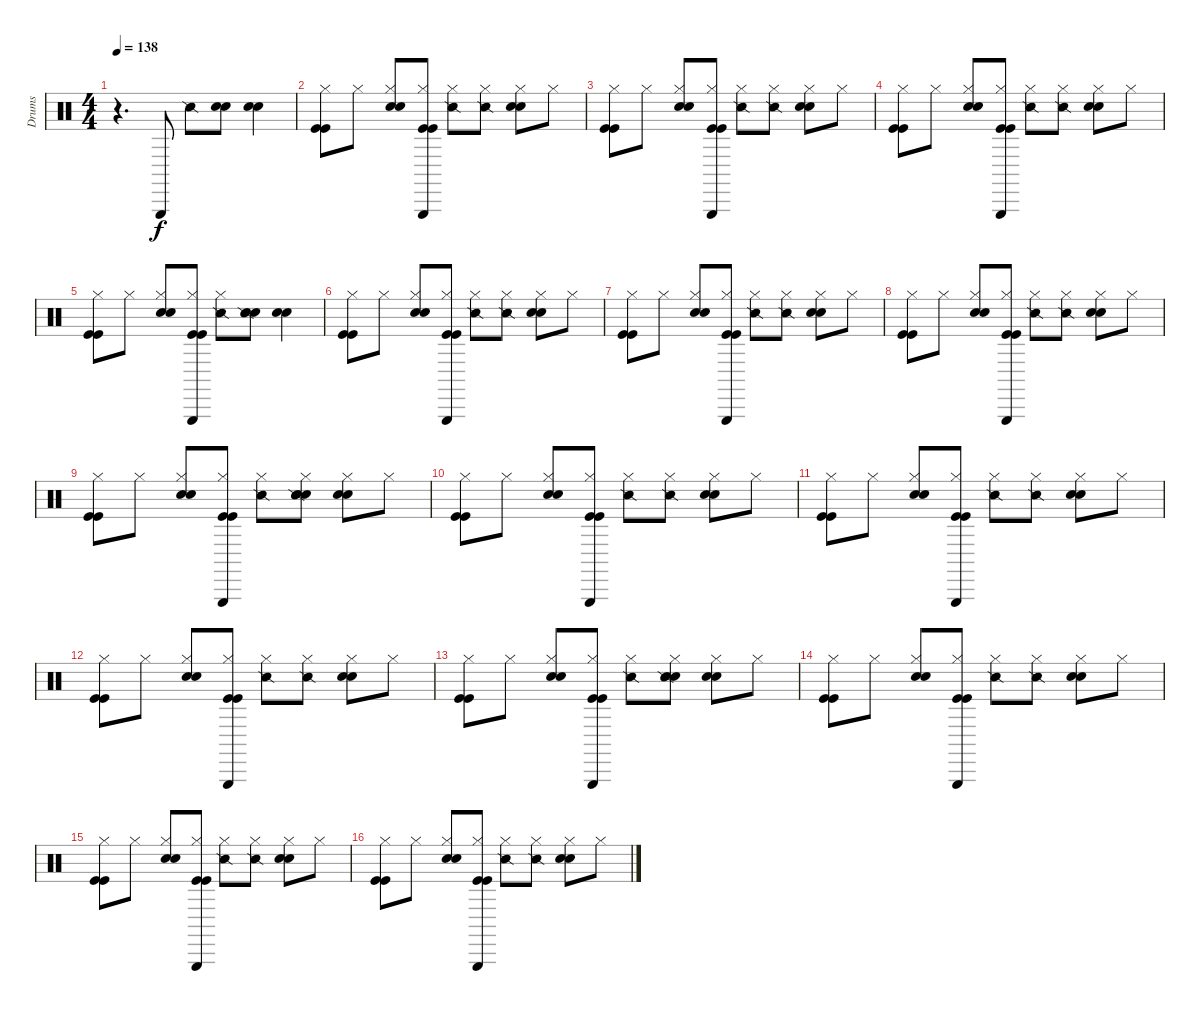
\track ("Drums" "Drums") {instrument percussion}
\staff {score}
\articulation defaults
\ts (4 4)
\tempo 138
\clef neutral
\ks c
r.4{d dy f} "Triangle (hit)".8 "Snare (side stick) 2".8 ("Snare (hit) 2" "Snare (hit) 2").8 ("Snare (hit) 2" "Snare (hit) 2").4 |
("Hi-Hat (closed)" "Kick (hit)" "Kick (hit)").8 "Hi-Hat (closed)".8 ("Hi-Hat (closed)" "Snare (hit) 2" "Snare (hit) 2").8 ("Hi-Hat (closed)" "Triangle (hit)" "Kick (hit)" "Kick (hit)").8 ("Hi-Hat (closed)" "Snare (side stick) 2").8 ("Hi-Hat (closed)" "Snare (side stick) 2").8 ("Hi-Hat (closed)" "Snare (hit) 2" "Snare (hit) 2").8 "Hi-Hat (closed)".8 |
("Hi-Hat (closed)" "Kick (hit)" "Kick (hit)").8 "Hi-Hat (closed)".8 ("Hi-Hat (closed)" "Snare (hit) 2" "Snare (hit) 2").8 ("Hi-Hat (closed)" "Triangle (hit)" "Kick (hit)" "Kick (hit)").8 ("Hi-Hat (closed)" "Snare (side stick) 2").8 ("Hi-Hat (closed)" "Snare (side stick) 2").8 ("Hi-Hat (closed)" "Snare (hit) 2" "Snare (hit) 2").8 "Hi-Hat (closed)".8 |
("Hi-Hat (closed)" "Kick (hit)" "Kick (hit)").8 "Hi-Hat (closed)".8 ("Hi-Hat (closed)" "Snare (hit) 2" "Snare (hit) 2").8 ("Hi-Hat (closed)" "Triangle (hit)" "Kick (hit)" "Kick (hit)").8 ("Hi-Hat (closed)" "Snare (side stick) 2").8 ("Hi-Hat (closed)" "Snare (side stick) 2").8 ("Hi-Hat (closed)" "Snare (hit) 2" "Snare (hit) 2").8 "Hi-Hat (closed)".8 |
("Hi-Hat (closed)" "Kick (hit)" "Kick (hit)").8 "Hi-Hat (closed)".8 ("Hi-Hat (closed)" "Snare (hit) 2" "Snare (hit) 2").8 ("Hi-Hat (closed)" "Triangle (hit)" "Kick (hit)" "Kick (hit)").8 ("Hi-Hat (closed)" "Snare (side stick) 2").8 ("Snare (hit) 2" "Snare (hit) 2" "Snare (side stick) 2").8 ("Snare (hit) 2" "Snare (hit) 2").4 |
("Hi-Hat (closed)" "Kick (hit)" "Kick (hit)").8 "Hi-Hat (closed)".8 ("Hi-Hat (closed)" "Snare (hit) 2" "Snare (hit) 2").8 ("Hi-Hat (closed)" "Triangle (hit)" "Kick (hit)" "Kick (hit)").8 ("Hi-Hat (closed)" "Snare (side stick) 2").8 ("Hi-Hat (closed)" "Snare (side stick) 2").8 ("Hi-Hat (closed)" "Snare (hit) 2" "Snare (hit) 2").8 "Hi-Hat (closed)".8 |
("Hi-Hat (closed)" "Kick (hit)" "Kick (hit)").8 "Hi-Hat (closed)".8 ("Hi-Hat (closed)" "Snare (hit) 2" "Snare (hit) 2").8 ("Hi-Hat (closed)" "Triangle (hit)" "Kick (hit)" "Kick (hit)").8 ("Hi-Hat (closed)" "Snare (side stick) 2").8 ("Hi-Hat (closed)" "Snare (side stick) 2").8 ("Hi-Hat (closed)" "Snare (hit) 2" "Snare (hit) 2").8 "Hi-Hat (closed)".8 |
("Hi-Hat (closed)" "Kick (hit)" "Kick (hit)").8 "Hi-Hat (closed)".8 ("Hi-Hat (closed)" "Snare (hit) 2" "Snare (hit) 2").8 ("Hi-Hat (closed)" "Triangle (hit)" "Kick (hit)" "Kick (hit)").8 ("Hi-Hat (closed)" "Snare (side stick) 2").8 ("Hi-Hat (closed)" "Snare (side stick) 2").8 ("Hi-Hat (closed)" "Snare (hit) 2" "Snare (hit) 2").8 "Hi-Hat (closed)".8 |
("Hi-Hat (closed)" "Kick (hit)" "Kick (hit)").8 "Hi-Hat (closed)".8 ("Hi-Hat (closed)" "Snare (hit) 2" "Snare (hit) 2").8 ("Hi-Hat (closed)" "Triangle (hit)" "Kick (hit)" "Kick (hit)").8 ("Hi-Hat (closed)" "Snare (side stick) 2").8 ("Hi-Hat (closed)" "Snare (hit) 2" "Snare (hit) 2" "Snare (side stick) 2").8 ("Hi-Hat (closed)" "Snare (hit) 2" "Snare (hit) 2").8 "Hi-Hat (closed)".8 |
("Hi-Hat (closed)" "Kick (hit)" "Kick (hit)").8 "Hi-Hat (closed)".8 ("Hi-Hat (closed)" "Snare (hit) 2" "Snare (hit) 2").8 ("Hi-Hat (closed)" "Triangle (hit)" "Kick (hit)" "Kick (hit)").8 ("Hi-Hat (closed)" "Snare (side stick) 2").8 ("Hi-Hat (closed)" "Snare (side stick) 2").8 ("Hi-Hat (closed)" "Snare (hit) 2" "Snare (hit) 2").8 "Hi-Hat (closed)".8 |
("Hi-Hat (closed)" "Kick (hit)" "Kick (hit)").8 "Hi-Hat (closed)".8 ("Hi-Hat (closed)" "Snare (hit) 2" "Snare (hit) 2").8 ("Hi-Hat (closed)" "Triangle (hit)" "Kick (hit)" "Kick (hit)").8 ("Hi-Hat (closed)" "Snare (side stick) 2").8 ("Hi-Hat (closed)" "Snare (side stick) 2").8 ("Hi-Hat (closed)" "Snare (hit) 2" "Snare (hit) 2").8 "Hi-Hat (closed)".8 |
("Hi-Hat (closed)" "Kick (hit)" "Kick (hit)").8 "Hi-Hat (closed)".8 ("Hi-Hat (closed)" "Snare (hit) 2" "Snare (hit) 2").8 ("Hi-Hat (closed)" "Triangle (hit)" "Kick (hit)" "Kick (hit)").8 ("Hi-Hat (closed)" "Snare (side stick) 2").8 ("Hi-Hat (closed)" "Snare (side stick) 2").8 ("Hi-Hat (closed)" "Snare (hit) 2" "Snare (hit) 2").8 "Hi-Hat (closed)".8 |
("Hi-Hat (closed)" "Kick (hit)" "Kick (hit)").8 "Hi-Hat (closed)".8 ("Hi-Hat (closed)" "Snare (hit) 2" "Snare (hit) 2").8 ("Hi-Hat (closed)" "Triangle (hit)" "Kick (hit)" "Kick (hit)").8 ("Hi-Hat (closed)" "Snare (side stick) 2").8 ("Hi-Hat (closed)" "Snare (hit) 2" "Snare (hit) 2" "Snare (side stick) 2").8 ("Hi-Hat (closed)" "Snare (hit) 2" "Snare (hit) 2").8 "Hi-Hat (closed)".8 |
("Hi-Hat (closed)" "Kick (hit)" "Kick (hit)").8 "Hi-Hat (closed)".8 ("Hi-Hat (closed)" "Snare (hit) 2" "Snare (hit) 2").8 ("Hi-Hat (closed)" "Triangle (hit)" "Kick (hit)" "Kick (hit)").8 ("Hi-Hat (closed)" "Snare (side stick) 2").8 ("Hi-Hat (closed)" "Snare (side stick) 2").8 ("Hi-Hat (closed)" "Snare (hit) 2" "Snare (hit) 2").8 "Hi-Hat (closed)".8 |
("Hi-Hat (closed)" "Kick (hit)" "Kick (hit)").8 "Hi-Hat (closed)".8 ("Hi-Hat (closed)" "Snare (hit) 2" "Snare (hit) 2").8 ("Hi-Hat (closed)" "Triangle (hit)" "Kick (hit)" "Kick (hit)").8 ("Hi-Hat (closed)" "Snare (side stick) 2").8 ("Hi-Hat (closed)" "Snare (side stick) 2").8 ("Hi-Hat (closed)" "Snare (hit) 2" "Snare (hit) 2").8 "Hi-Hat (closed)".8 |
("Hi-Hat (closed)" "Kick (hit)" "Kick (hit)").8 "Hi-Hat (closed)".8 ("Hi-Hat (closed)" "Snare (hit) 2" "Snare (hit) 2").8 ("Hi-Hat (closed)" "Triangle (hit)" "Kick (hit)" "Kick (hit)").8 ("Hi-Hat (closed)" "Snare (side stick) 2").8 ("Hi-Hat (closed)" "Snare (side stick) 2").8 ("Hi-Hat (closed)" "Snare (hit) 2" "Snare (hit) 2").8 "Hi-Hat (closed)".8
